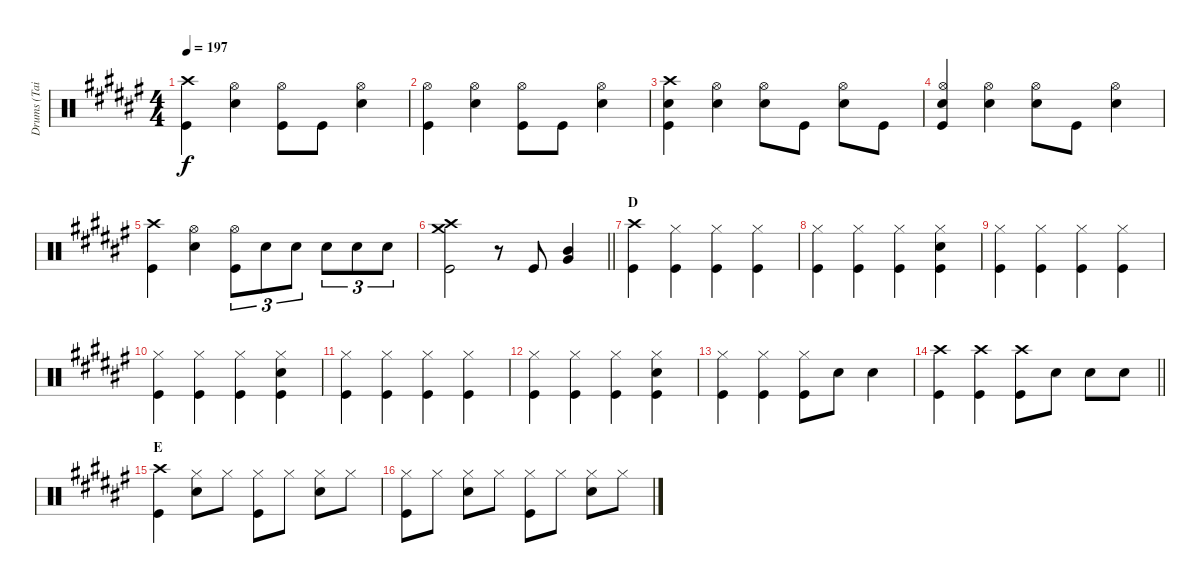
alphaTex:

\track ("Drums (Tainaka Ritsu)" "Drums (Tai") {instrument percussion}
\staff {score}
\articulation defaults
\ts (4 4)
\tempo 197
\clef neutral
\ks f#
("Crash high (hit)" "Kick (hit)").4{dy f} ("Hi-Hat (open)" "Snare (hit) 2").4 ("Hi-Hat (open)" "Kick (hit)").8 "Kick (hit)".8 ("Hi-Hat (open)" "Snare (hit) 2").4 |
("Hi-Hat (open)" "Kick (hit)").4 ("Hi-Hat (open)" "Snare (hit) 2").4 ("Hi-Hat (open)" "Kick (hit)").8 "Kick (hit)".8 ("Hi-Hat (open)" "Snare (hit) 2").4 |
("Crash high (hit)" "Snare (hit) 2" "Kick (hit)").4 ("Hi-Hat (open)" "Snare (hit) 2").4 ("Hi-Hat (open)" "Snare (hit) 2").8 "Kick (hit)".8 ("Hi-Hat (open)" "Snare (hit) 2").8 "Kick (hit)".8 |
("Hi-Hat (open)" "Snare (hit) 2" "Kick (hit)").4 ("Hi-Hat (open)" "Snare (hit) 2").4 ("Hi-Hat (open)" "Snare (hit) 2").8 "Kick (hit)".8 ("Hi-Hat (open)" "Snare (hit) 2").4 |
("Crash high (hit)" "Kick (hit)").4 ("Hi-Hat (open)" "Snare (hit) 2").4 ("Hi-Hat (open)" "Kick (hit)").8{tu (3 2)} "Snare (hit) 2".8{tu (3 2)} "Snare (hit) 2".8{tu (3 2)} "Snare (hit) 2".8{tu (3 2)} "Snare (hit) 2".8{tu (3 2)} "Snare (hit) 2".8{tu (3 2)} |
\barLineRight lightlight
("Crash high (hit)" "Crash medium (hit)" "Kick (hit)").2 r.8 "Kick (hit)".8 ("Mid Tom (hit)" "Very Low Tom (hit)").4 |
\section ("" "D")
("Crash high (hit)" "Kick (hit)").4 ("Hi-Hat (closed)" "Kick (hit)").4 ("Hi-Hat (closed)" "Kick (hit)").4 ("Hi-Hat (closed)" "Kick (hit)").4 |
("Hi-Hat (closed)" "Kick (hit)").4 ("Hi-Hat (closed)" "Kick (hit)").4 ("Hi-Hat (closed)" "Kick (hit)").4 ("Hi-Hat (closed)" "Snare (hit) 2" "Kick (hit)").4 |
("Hi-Hat (closed)" "Kick (hit)").4 ("Hi-Hat (closed)" "Kick (hit)").4 ("Hi-Hat (closed)" "Kick (hit)").4 ("Hi-Hat (closed)" "Kick (hit)").4 |
("Hi-Hat (closed)" "Kick (hit)").4 ("Hi-Hat (closed)" "Kick (hit)").4 ("Hi-Hat (closed)" "Kick (hit)").4 ("Hi-Hat (closed)" "Snare (hit) 2" "Kick (hit)").4 |
("Hi-Hat (closed)" "Kick (hit)").4 ("Hi-Hat (closed)" "Kick (hit)").4 ("Hi-Hat (closed)" "Kick (hit)").4 ("Hi-Hat (closed)" "Kick (hit)").4 |
("Hi-Hat (closed)" "Kick (hit)").4 ("Hi-Hat (closed)" "Kick (hit)").4 ("Hi-Hat (closed)" "Kick (hit)").4 ("Hi-Hat (closed)" "Snare (hit) 2" "Kick (hit)").4 |
("Hi-Hat (closed)" "Kick (hit)").4 ("Hi-Hat (closed)" "Kick (hit)").4 ("Hi-Hat (closed)" "Kick (hit)").8 "Snare (hit) 2".8 "Snare (hit) 2".4 |
\barLineRight lightlight
("Crash high (hit)" "Kick (hit)").4 ("Crash high (hit)" "Kick (hit)").4 ("Crash high (hit)" "Kick (hit)").8 "Snare (hit) 2".8 "Snare (hit) 2".8 "Snare (hit) 2".8 |
\section ("" "E")
("Crash high (hit)" "Kick (hit)").4 ("Hi-Hat (closed)" "Snare (hit) 2").8 "Hi-Hat (closed)".8 ("Hi-Hat (closed)" "Kick (hit)").8 "Hi-Hat (closed)".8 ("Hi-Hat (closed)" "Snare (hit) 2").8 "Hi-Hat (closed)".8 |
("Hi-Hat (closed)" "Kick (hit)").8 "Hi-Hat (closed)".8 ("Hi-Hat (closed)" "Snare (hit) 2").8 "Hi-Hat (closed)".8 ("Hi-Hat (closed)" "Kick (hit)").8 "Hi-Hat (closed)".8 ("Hi-Hat (closed)" "Snare (hit) 2").8 "Hi-Hat (closed)".8
